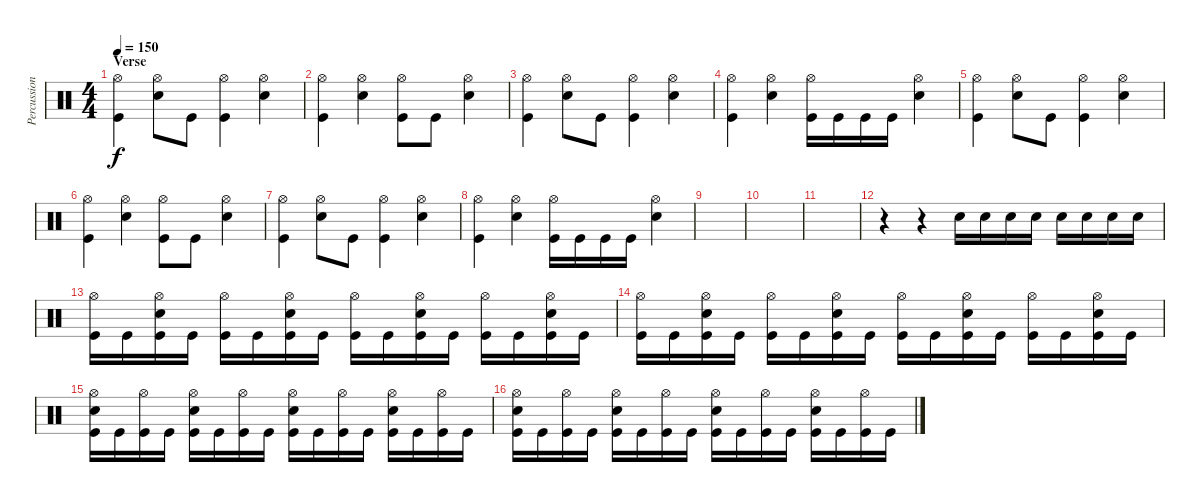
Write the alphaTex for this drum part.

\track ("Percussion" "Percussion") {instrument percussion}
\staff {score}
\articulation defaults
\ts (4 4)
\section ("" "Verse")
\tempo 150
\clef neutral
\ks c
("Kick (hit)" "Hi-Hat (open)").4{dy f} ("Electric Snare (hit)" "Hi-Hat (open)").8 "Kick (hit)".8 ("Kick (hit)" "Hi-Hat (open)").4 ("Electric Snare (hit)" "Hi-Hat (open)").4 |
("Kick (hit)" "Hi-Hat (open)").4 ("Electric Snare (hit)" "Hi-Hat (open)").4 ("Kick (hit)" "Hi-Hat (open)").8 "Kick (hit)".8 ("Electric Snare (hit)" "Hi-Hat (open)").4 |
("Kick (hit)" "Hi-Hat (open)").4 ("Electric Snare (hit)" "Hi-Hat (open)").8 "Kick (hit)".8 ("Kick (hit)" "Hi-Hat (open)").4 ("Electric Snare (hit)" "Hi-Hat (open)").4 |
("Kick (hit)" "Hi-Hat (open)").4 ("Electric Snare (hit)" "Hi-Hat (open)").4 ("Kick (hit)" "Hi-Hat (open)").16 "Kick (hit)".16 "Kick (hit)".16 "Kick (hit)".16 ("Electric Snare (hit)" "Hi-Hat (open)").4 |
("Kick (hit)" "Hi-Hat (open)").4 ("Electric Snare (hit)" "Hi-Hat (open)").8 "Kick (hit)".8 ("Kick (hit)" "Hi-Hat (open)").4 ("Electric Snare (hit)" "Hi-Hat (open)").4 |
("Kick (hit)" "Hi-Hat (open)").4 ("Electric Snare (hit)" "Hi-Hat (open)").4 ("Kick (hit)" "Hi-Hat (open)").8 "Kick (hit)".8 ("Electric Snare (hit)" "Hi-Hat (open)").4 |
("Kick (hit)" "Hi-Hat (open)").4 ("Electric Snare (hit)" "Hi-Hat (open)").8 "Kick (hit)".8 ("Kick (hit)" "Hi-Hat (open)").4 ("Electric Snare (hit)" "Hi-Hat (open)").4 |
("Kick (hit)" "Hi-Hat (open)").4 ("Electric Snare (hit)" "Hi-Hat (open)").4 ("Kick (hit)" "Hi-Hat (open)").16 "Kick (hit)".16 "Kick (hit)".16 "Kick (hit)".16 ("Electric Snare (hit)" "Hi-Hat (open)").4 |
|
|
|
r.4 r.4 "Electric Snare (hit)".16 "Electric Snare (hit)".16 "Electric Snare (hit)".16 "Electric Snare (hit)".16 "Electric Snare (hit)".16 "Electric Snare (hit)".16 "Electric Snare (hit)".16 "Electric Snare (hit)".16 |
("Kick (hit)" "Hi-Hat (open)").16 "Kick (hit)".16 ("Kick (hit)" "Electric Snare (hit)" "Hi-Hat (open)").16 "Kick (hit)".16 ("Kick (hit)" "Hi-Hat (open)").16 "Kick (hit)".16 ("Kick (hit)" "Electric Snare (hit)" "Hi-Hat (open)").16 "Kick (hit)".16 ("Kick (hit)" "Hi-Hat (open)").16 "Kick (hit)".16 ("Kick (hit)" "Electric Snare (hit)" "Hi-Hat (open)").16 "Kick (hit)".16 ("Kick (hit)" "Hi-Hat (open)").16 "Kick (hit)".16 ("Kick (hit)" "Electric Snare (hit)" "Hi-Hat (open)").16 "Kick (hit)".16 |
("Kick (hit)" "Hi-Hat (open)").16 "Kick (hit)".16 ("Kick (hit)" "Electric Snare (hit)" "Hi-Hat (open)").16 "Kick (hit)".16 ("Kick (hit)" "Hi-Hat (open)").16 "Kick (hit)".16 ("Kick (hit)" "Electric Snare (hit)" "Hi-Hat (open)").16 "Kick (hit)".16 ("Kick (hit)" "Hi-Hat (open)").16 "Kick (hit)".16 ("Kick (hit)" "Electric Snare (hit)" "Hi-Hat (open)").16 "Kick (hit)".16 ("Kick (hit)" "Hi-Hat (open)").16 "Kick (hit)".16 ("Kick (hit)" "Electric Snare (hit)" "Hi-Hat (open)").16 "Kick (hit)".16 |
("Kick (hit)" "Electric Snare (hit)" "Hi-Hat (open)").16 "Kick (hit)".16 ("Kick (hit)" "Hi-Hat (open)").16 "Kick (hit)".16 ("Kick (hit)" "Electric Snare (hit)" "Hi-Hat (open)").16 "Kick (hit)".16 ("Kick (hit)" "Hi-Hat (open)").16 "Kick (hit)".16 ("Kick (hit)" "Electric Snare (hit)" "Hi-Hat (open)").16 "Kick (hit)".16 ("Kick (hit)" "Hi-Hat (open)").16 "Kick (hit)".16 ("Kick (hit)" "Electric Snare (hit)" "Hi-Hat (open)").16 "Kick (hit)".16 ("Kick (hit)" "Hi-Hat (open)").16 "Kick (hit)".16 |
("Kick (hit)" "Electric Snare (hit)" "Hi-Hat (open)").16 "Kick (hit)".16 ("Kick (hit)" "Hi-Hat (open)").16 "Kick (hit)".16 ("Kick (hit)" "Electric Snare (hit)" "Hi-Hat (open)").16 "Kick (hit)".16 ("Kick (hit)" "Hi-Hat (open)").16 "Kick (hit)".16 ("Kick (hit)" "Electric Snare (hit)" "Hi-Hat (open)").16 "Kick (hit)".16 ("Kick (hit)" "Hi-Hat (open)").16 "Kick (hit)".16 ("Kick (hit)" "Electric Snare (hit)" "Hi-Hat (open)").16 "Kick (hit)".16 ("Kick (hit)" "Hi-Hat (open)").16 "Kick (hit)".16
